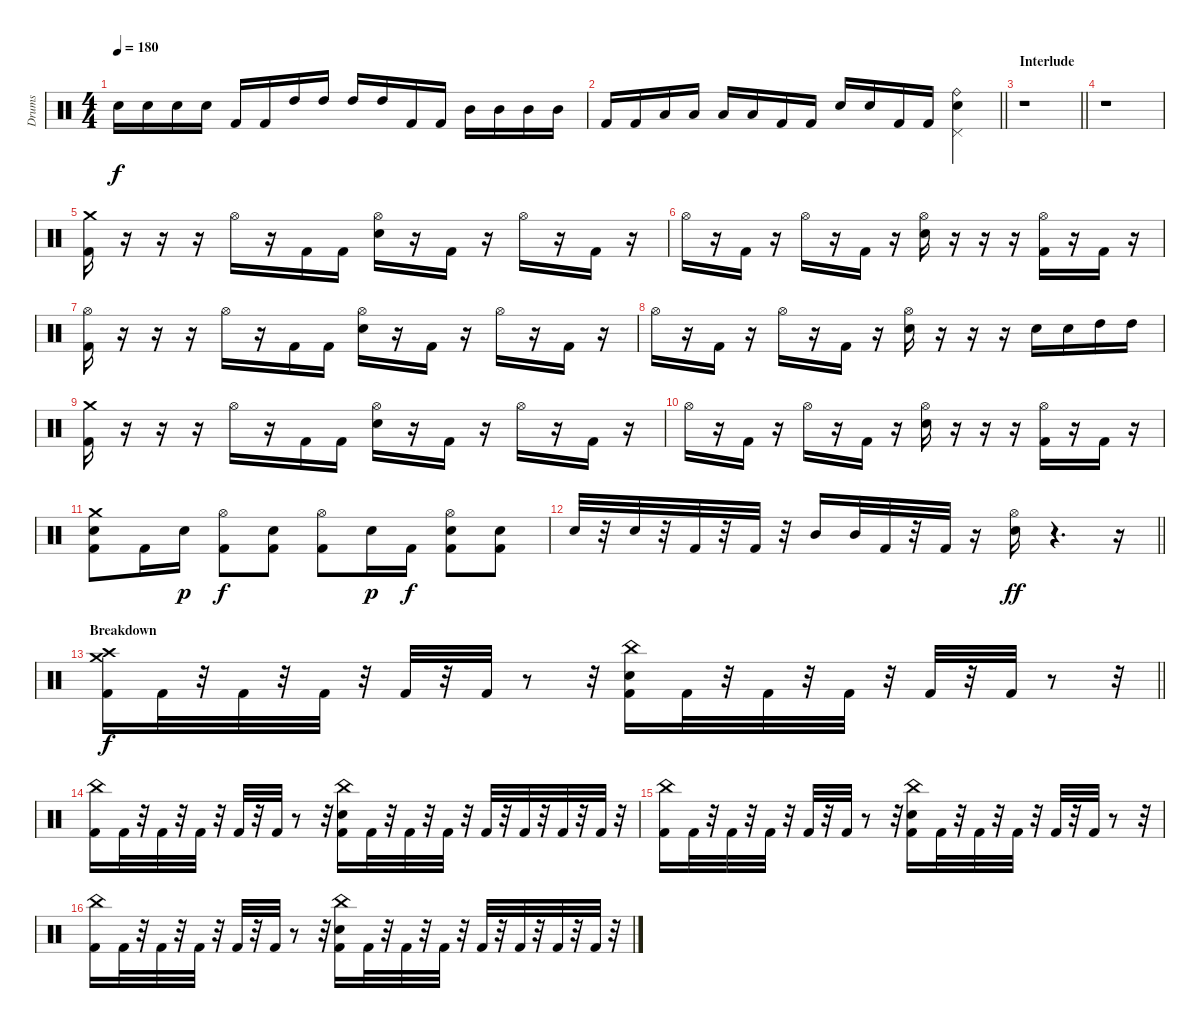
\track ("Drums" "Drums") {instrument percussion}
\staff {score}
\articulation defaults
\ts (4 4)
\tempo 180
\clef neutral
\ks c "Snare (hit) 2".16{dy f} "Snare (hit) 2".16 "Snare (hit) 2".16 "Snare (hit) 2".16 "Kick (hit) 2".16 "Kick (hit) 2".16 "High Tom (hit)".16 "High Tom (hit)".16 "High Tom (hit)".16 "High Tom (hit)".16 "Kick (hit) 2".16 "Kick (hit) 2".16 "Mid Tom (hit)".16 "Mid Tom (hit)".16 "Mid Tom (hit)".16 "Mid Tom (hit)".16
|
\barLineRight lightlight "Kick (hit) 2".16 "Kick (hit) 2".16 "Low Tom (hit)".16 "Low Tom (hit)".16 "Low Tom (hit)".16 "Low Tom (hit)".16 "Kick (hit) 2".16 "Kick (hit) 2".16 "Snare (hit) 2".16 "Snare (hit) 2".16 "Kick (hit) 2".16 "Kick (hit) 2".16
("Pedal Hi-Hat (hit)" "Ride (bell)" "Snare (hit) 2").4 |
\section ("" "Interlude")
\barLineRight lightlight
r.1 |
r.1 |
("Crash medium (hit)" "Kick (hit) 2").16 r.16 r.16 r.16 "Hi-Hat (open)".16 r.16 "Kick (hit) 2".16 "Kick (hit) 2".16 ("Hi-Hat (open)" "Snare (hit) 2").16 r.16 "Kick (hit) 2".16 r.16 "Hi-Hat (open)".16 r.16 "Kick (hit) 2".16 r.16 |
"Hi-Hat (open)".16 r.16 "Kick (hit) 2".16 r.16 "Hi-Hat (open)".16 r.16 "Kick (hit) 2".16 r.16 ("Hi-Hat (open)" "Snare (hit) 2").16 r.16 r.16 r.16 ("Hi-Hat (open)" "Kick (hit) 2").16 r.16 "Kick (hit) 2".16 r.16 |
("Hi-Hat (open)" "Kick (hit) 2").16 r.16 r.16 r.16 "Hi-Hat (open)".16 r.16 "Kick (hit) 2".16 "Kick (hit) 2".16 ("Hi-Hat (open)" "Snare (hit) 2").16 r.16 "Kick (hit) 2".16 r.16 "Hi-Hat (open)".16 r.16 "Kick (hit) 2".16 r.16 |
"Hi-Hat (open)".16 r.16 "Kick (hit) 2".16 r.16 "Hi-Hat (open)".16 r.16 "Kick (hit) 2".16 r.16 ("Hi-Hat (open)" "Snare (hit) 2").16 r.16 r.16 r.16 "Snare (hit) 2".16 "Snare (hit) 2".16 "High Tom (hit)".16 "High Tom (hit)".16 |
("Crash medium (hit)" "Kick (hit) 2").16 r.16 r.16 r.16 "Hi-Hat (open)".16 r.16 "Kick (hit) 2".16 "Kick (hit) 2".16 ("Hi-Hat (open)" "Snare (hit) 2").16 r.16 "Kick (hit) 2".16 r.16 "Hi-Hat (open)".16 r.16 "Kick (hit) 2".16 r.16 |
"Hi-Hat (open)".16 r.16 "Kick (hit) 2".16 r.16 "Hi-Hat (open)".16 r.16 "Kick (hit) 2".16 r.16 ("Hi-Hat (open)" "Snare (hit) 2").16 r.16 r.16 r.16 ("Hi-Hat (open)" "Kick (hit) 2").16 r.16 "Kick (hit) 2".16 r.16 |
("Kick (hit) 2" "Crash medium (hit)" "Snare (hit) 2").8 "Kick (hit) 2".16 "Snare (hit) 2".16{dy p} ("Hi-Hat (open)" "Kick (hit) 2").8{dy f} ("Snare (hit) 2" "Kick (hit) 2").8 ("Kick (hit) 2" "Hi-Hat (open)").8 "Snare (hit) 2".16{dy p} "Kick (hit) 2".16{dy f} ("Snare (hit) 2" "Kick (hit) 2" "Hi-Hat (open)").8 ("Kick (hit) 2" "Snare (hit) 2").8 |
\barLineRight lightlight "Snare (hit) 2".32
r.32 "Snare (hit) 2".32 r.32 "Kick (hit) 2".32 r.32 "Kick (hit) 2".32 r.32 "Mid Tom (hit)".16 "Mid Tom (hit)".32 "Kick (hit) 2".32 r.32 "Kick (hit) 2".32 r.16 ("Snare (hit) 2" "Hi-Hat (open)").16{dy ff} r.4{d} r.16 |
\section ("" "Breakdown")
\barLineRight lightlight
("Crash high (hit)" "Crash medium (hit)" "Kick (hit) 2").16{dy f} "Kick (hit) 2".32 r.32 "Kick (hit) 2".32 r.32 "Kick (hit) 2".32 r.32 "Kick (hit) 2".32 r.32 "Kick (hit) 2".32 r.8 r.32 ("Snare (hit) 2" "China (hit)" "Kick (hit) 2").16 "Kick (hit) 2".32 r.32 "Kick (hit) 2".32 r.32 "Kick (hit) 2".32 r.32 "Kick (hit) 2".32 r.32 "Kick (hit) 2".32 r.8 r.32 |
("China (hit)" "Kick (hit) 2").16 "Kick (hit) 2".32 r.32 "Kick (hit) 2".32 r.32 "Kick (hit) 2".32 r.32 "Kick (hit) 2".32 r.32 "Kick (hit) 2".32 r.8 r.32 ("China (hit)" "Kick (hit) 2" "Snare (hit) 2").16 "Kick (hit) 2".32 r.32 "Kick (hit) 2".32 r.32 "Kick (hit) 2".32 r.32 "Kick (hit) 2".32 r.32 "Kick (hit) 2".32 r.32 "Kick (hit) 2".32 r.32 "Kick (hit) 2".32 r.32 |
("China (hit)" "Kick (hit) 2").16 "Kick (hit) 2".32 r.32 "Kick (hit) 2".32 r.32 "Kick (hit) 2".32 r.32 "Kick (hit) 2".32 r.32 "Kick (hit) 2".32 r.8 r.32 ("Snare (hit) 2" "China (hit)" "Kick (hit) 2").16 "Kick (hit) 2".32 r.32 "Kick (hit) 2".32 r.32 "Kick (hit) 2".32 r.32 "Kick (hit) 2".32 r.32 "Kick (hit) 2".32 r.8 r.32 |
("China (hit)" "Kick (hit) 2").16 "Kick (hit) 2".32 r.32 "Kick (hit) 2".32 r.32 "Kick (hit) 2".32 r.32 "Kick (hit) 2".32 r.32 "Kick (hit) 2".32 r.8 r.32 ("China (hit)" "Kick (hit) 2" "Snare (hit) 2").16 "Kick (hit) 2".32 r.32 "Kick (hit) 2".32 r.32 "Kick (hit) 2".32 r.32 "Kick (hit) 2".32 r.32 "Kick (hit) 2".32 r.32 "Kick (hit) 2".32 r.32 "Kick (hit) 2".32 r.32
